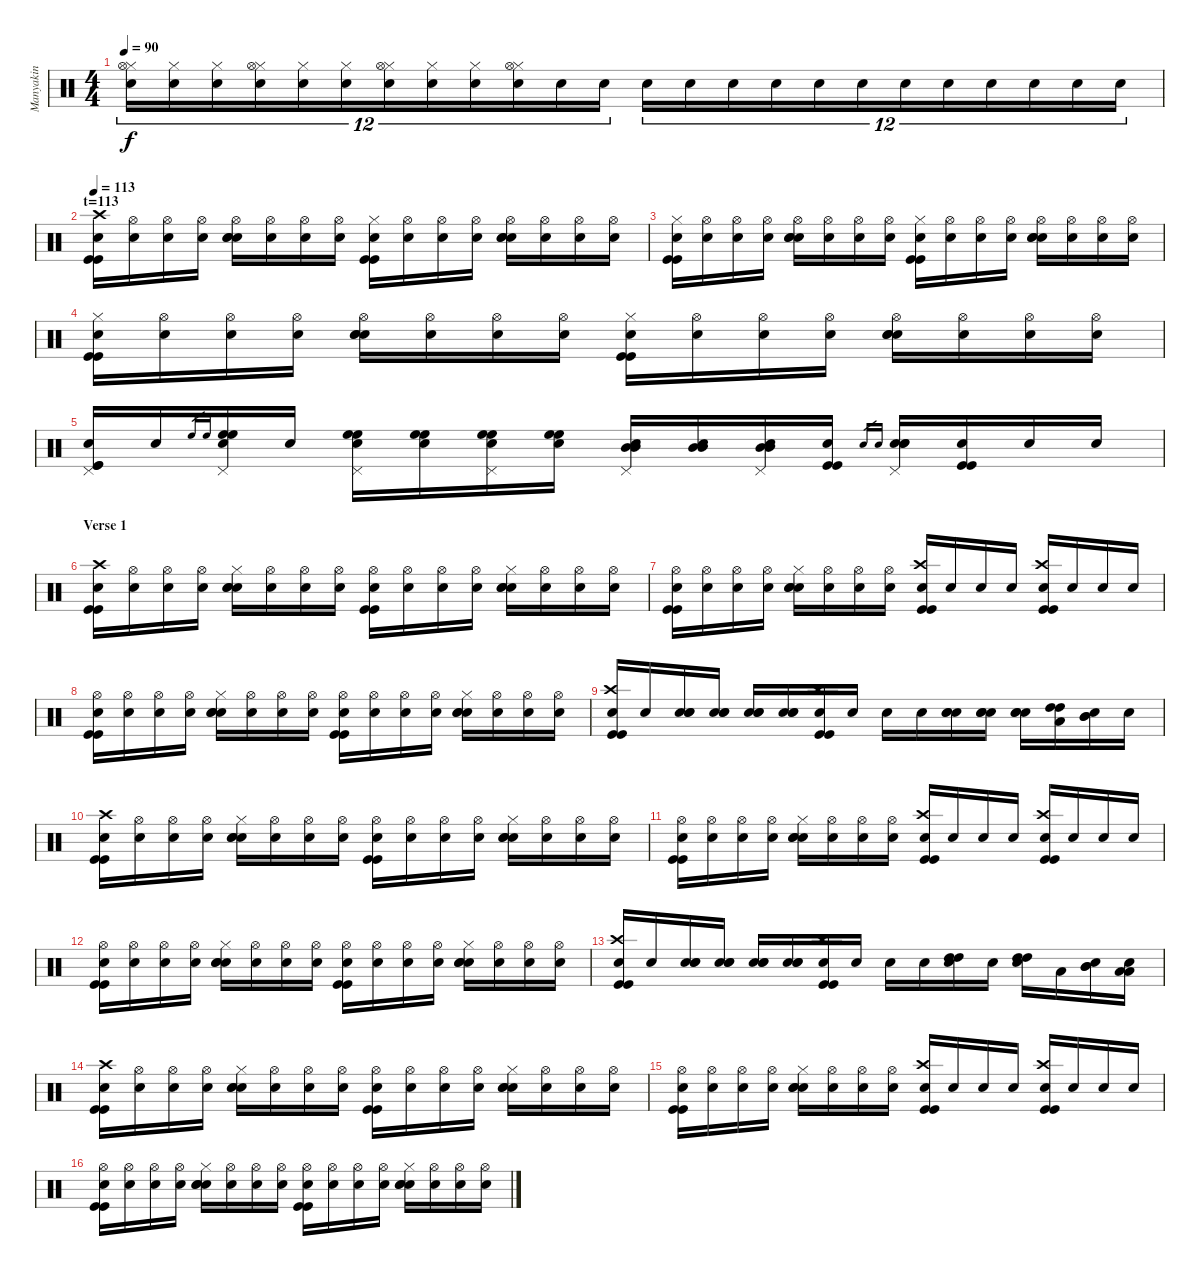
\track ("Manyakin" "Manyakin") {instrument percussion}
\staff {score}
\articulation defaults
\ts (4 4)
\tempo 90
\clef neutral
\ks c
("Hi-Hat (closed)" "Hi-Hat (open)" "Snare (hit)"{x}).16{tu (12 8) dy f} ("Hi-Hat (closed)" "Snare (hit)"{x}).16{tu (12 8)} ("Hi-Hat (closed)" "Snare (hit)"{x}).16{tu (12 8)} ("Hi-Hat (closed)" "Hi-Hat (open)" "Snare (hit)"{x}).16{tu (12 8)} ("Hi-Hat (closed)" "Snare (hit)"{x}).16{tu (12 8)} ("Hi-Hat (closed)" "Snare (hit)"{x}).16{tu (12 8)} ("Hi-Hat (closed)" "Hi-Hat (open)" "Snare (hit)"{x}).16{tu (12 8)} ("Hi-Hat (closed)" "Snare (hit)"{x}).16{tu (12 8)} ("Hi-Hat (closed)" "Snare (hit)"{x}).16{tu (12 8)} ("Hi-Hat (closed)" "Hi-Hat (open)" "Snare (hit)"{x}).16{tu (12 8)} "Snare (hit)"{x}.16{tu (12 8)} "Snare (hit)"{x}.16{tu (12 8)} "Snare (hit)"{x}.16{tu (12 8)} "Snare (hit)"{x}.16{tu (12 8)} "Snare (hit)"{x}.16{tu (12 8)} "Snare (hit)"{x}.16{tu (12 8)} "Snare (hit)"{x}.16{tu (12 8)} "Snare (hit)"{x}.16{tu (12 8)} "Snare (hit)"{x}.16{tu (12 8)} "Snare (hit)"{x}.16{tu (12 8)} "Snare (hit)"{x}.16{tu (12 8)} "Snare (hit)"{x}.16{tu (12 8)} "Snare (hit)"{x}.16{tu (12 8)} "Snare (hit)"{x}.16{tu (12 8)} |
\section ("" "t=113")
\tempo 113
("Crash high (hit)" "Kick (hit)" "Kick (hit)" "Snare (hit)"{x}).16 ("Hi-Hat (open)" "Snare (hit)"{x}).16 ("Hi-Hat (open)" "Snare (hit)"{x}).16 ("Hi-Hat (open)" "Snare (hit)"{x}).16 ("Hi-Hat (open)" "Electric Snare (hit)" "Electric Snare (hit)" "Snare (hit)"{x}).16 ("Hi-Hat (open)" "Snare (hit)"{x}).16 ("Hi-Hat (open)" "Snare (hit)"{x}).16 ("Hi-Hat (open)" "Snare (hit)"{x}).16 ("Hi-Hat (closed)" "Kick (hit)" "Kick (hit)" "Snare (hit)"{x}).16 ("Hi-Hat (open)" "Snare (hit)"{x}).16 ("Hi-Hat (open)" "Snare (hit)"{x}).16 ("Hi-Hat (open)" "Snare (hit)"{x}).16 ("Hi-Hat (open)" "Electric Snare (hit)" "Electric Snare (hit)" "Snare (hit)"{x}).16 ("Hi-Hat (open)" "Snare (hit)"{x}).16 ("Hi-Hat (open)" "Snare (hit)"{x}).16 ("Hi-Hat (open)" "Snare (hit)"{x}).16 |
("Hi-Hat (closed)" "Kick (hit)" "Kick (hit)" "Snare (hit)"{x}).16 ("Hi-Hat (open)" "Snare (hit)"{x}).16 ("Hi-Hat (open)" "Snare (hit)"{x}).16 ("Hi-Hat (open)" "Snare (hit)"{x}).16 ("Hi-Hat (open)" "Electric Snare (hit)" "Electric Snare (hit)" "Snare (hit)"{x}).16 ("Hi-Hat (open)" "Snare (hit)"{x}).16 ("Hi-Hat (open)" "Snare (hit)"{x}).16 ("Hi-Hat (open)" "Snare (hit)"{x}).16 ("Hi-Hat (closed)" "Kick (hit)" "Kick (hit)" "Snare (hit)"{x}).16 ("Hi-Hat (open)" "Snare (hit)"{x}).16 ("Hi-Hat (open)" "Snare (hit)"{x}).16 ("Hi-Hat (open)" "Snare (hit)"{x}).16 ("Hi-Hat (open)" "Electric Snare (hit)" "Electric Snare (hit)" "Snare (hit)"{x}).16 ("Hi-Hat (open)" "Snare (hit)"{x}).16 ("Hi-Hat (open)" "Snare (hit)"{x}).16 ("Hi-Hat (open)" "Snare (hit)"{x}).16 |
("Hi-Hat (closed)" "Kick (hit)" "Kick (hit)" "Snare (hit)"{x}).16 ("Hi-Hat (open)" "Snare (hit)"{x}).16 ("Hi-Hat (open)" "Snare (hit)"{x}).16 ("Hi-Hat (open)" "Snare (hit)"{x}).16 ("Hi-Hat (open)" "Electric Snare (hit)" "Electric Snare (hit)" "Snare (hit)"{x}).16 ("Hi-Hat (open)" "Snare (hit)"{x}).16 ("Hi-Hat (open)" "Snare (hit)"{x}).16 ("Hi-Hat (open)" "Snare (hit)"{x}).16 ("Hi-Hat (closed)" "Kick (hit)" "Kick (hit)" "Snare (hit)"{x}).16 ("Hi-Hat (open)" "Snare (hit)"{x}).16 ("Hi-Hat (open)" "Snare (hit)"{x}).16 ("Hi-Hat (open)" "Snare (hit)"{x}).16 ("Hi-Hat (open)" "Electric Snare (hit)" "Electric Snare (hit)" "Snare (hit)"{x}).16 ("Hi-Hat (open)" "Snare (hit)"{x}).16 ("Hi-Hat (open)" "Snare (hit)"{x}).16 ("Hi-Hat (open)" "Snare (hit)"{x}).16 |
("Pedal Hi-Hat (hit)" "Kick (hit)" "Kick (hit)" "Snare (hit)"{x}).16 "Snare (hit)"{x}.16 "High Floor Tom (hit)".16{gr} "High Floor Tom (hit)".16{gr} ("Pedal Hi-Hat (hit)" "High Floor Tom (hit)" "High Floor Tom (hit)" "Snare (hit)"{x}).16 "Snare (hit)"{x}.16 ("Pedal Hi-Hat (hit)" "High Floor Tom (hit)" "High Floor Tom (hit)" "Snare (hit)"{x}).16 ("High Floor Tom (hit)" "High Floor Tom (hit)" "Snare (hit)"{x}).16 ("Pedal Hi-Hat (hit)" "High Floor Tom (hit)" "High Floor Tom (hit)" "Snare (hit)"{x}).16 ("High Floor Tom (hit)" "High Floor Tom (hit)" "Snare (hit)"{x}).16 ("Pedal Hi-Hat (hit)" "Mid Tom (hit)" "Mid Tom (hit)" "Snare (hit)"{x}).16 ("Mid Tom (hit)" "Mid Tom (hit)" "Snare (hit)"{x}).16 ("Pedal Hi-Hat (hit)" "Mid Tom (hit)" "Mid Tom (hit)" "Snare (hit)"{x}).16 ("Kick (hit)" "Kick (hit)" "Snare (hit)"{x}).16 "Electric Snare (hit)".16{gr} "Electric Snare (hit)".16{gr} ("Pedal Hi-Hat (hit)" "Electric Snare (hit)" "Electric Snare (hit)" "Snare (hit)"{x}).16 ("Kick (hit)" "Kick (hit)" "Snare (hit)"{x}).16 "Snare (hit)"{x}.16 "Snare (hit)"{x}.16 |
\section ("" "Verse 1")
("Crash high (hit)" "Kick (hit)" "Kick (hit)" "Snare (hit)"{x}).16 ("Hi-Hat (open)" "Snare (hit)"{x}).16 ("Hi-Hat (open)" "Snare (hit)"{x}).16 ("Hi-Hat (open)" "Snare (hit)"{x}).16 ("Hi-Hat (closed)" "Electric Snare (hit)" "Electric Snare (hit)" "Snare (hit)"{x}).16 ("Hi-Hat (open)" "Snare (hit)"{x}).16 ("Hi-Hat (open)" "Snare (hit)"{x}).16 ("Hi-Hat (open)" "Snare (hit)"{x}).16 ("Hi-Hat (open)" "Kick (hit)" "Kick (hit)" "Snare (hit)"{x}).16 ("Hi-Hat (open)" "Snare (hit)"{x}).16 ("Hi-Hat (open)" "Snare (hit)"{x}).16 ("Hi-Hat (open)" "Snare (hit)"{x}).16 ("Hi-Hat (closed)" "Electric Snare (hit)" "Electric Snare (hit)" "Snare (hit)"{x}).16 ("Hi-Hat (open)" "Snare (hit)"{x}).16 ("Hi-Hat (open)" "Snare (hit)"{x}).16 ("Hi-Hat (open)" "Snare (hit)"{x}).16 |
("Hi-Hat (open)" "Kick (hit)" "Kick (hit)" "Snare (hit)"{x}).16 ("Hi-Hat (open)" "Snare (hit)"{x}).16 ("Hi-Hat (open)" "Snare (hit)"{x}).16 ("Hi-Hat (open)" "Snare (hit)"{x}).16 ("Hi-Hat (closed)" "Electric Snare (hit)" "Electric Snare (hit)" "Snare (hit)"{x}).16 ("Hi-Hat (open)" "Snare (hit)"{x}).16 ("Hi-Hat (open)" "Snare (hit)"{x}).16 ("Hi-Hat (open)" "Snare (hit)"{x}).16 ("Crash high (hit)" "Kick (hit)" "Kick (hit)" "Snare (hit)"{x}).16 "Snare (hit)"{x}.16 "Snare (hit)"{x}.16 "Snare (hit)"{x}.16 ("Crash high (hit)" "Kick (hit)" "Kick (hit)" "Snare (hit)"{x}).16 "Snare (hit)"{x}.16 "Snare (hit)"{x}.16 "Snare (hit)"{x}.16 |
("Hi-Hat (open)" "Kick (hit)" "Kick (hit)" "Snare (hit)"{x}).16 ("Hi-Hat (open)" "Snare (hit)"{x}).16 ("Hi-Hat (open)" "Snare (hit)"{x}).16 ("Hi-Hat (open)" "Snare (hit)"{x}).16 ("Hi-Hat (closed)" "Electric Snare (hit)" "Electric Snare (hit)" "Snare (hit)"{x}).16 ("Hi-Hat (open)" "Snare (hit)"{x}).16 ("Hi-Hat (open)" "Snare (hit)"{x}).16 ("Hi-Hat (open)" "Snare (hit)"{x}).16 ("Hi-Hat (open)" "Kick (hit)" "Kick (hit)" "Snare (hit)"{x}).16 ("Hi-Hat (open)" "Snare (hit)"{x}).16 ("Hi-Hat (open)" "Snare (hit)"{x}).16 ("Hi-Hat (open)" "Snare (hit)"{x}).16 ("Hi-Hat (closed)" "Electric Snare (hit)" "Electric Snare (hit)" "Snare (hit)"{x}).16 ("Hi-Hat (open)" "Snare (hit)"{x}).16 ("Hi-Hat (open)" "Snare (hit)"{x}).16 ("Hi-Hat (open)" "Snare (hit)"{x}).16 |
("Crash high (hit)" "Kick (hit)" "Kick (hit)" "Snare (hit)"{x}).16 "Snare (hit)"{x}.16 ("Electric Snare (hit)" "Electric Snare (hit)" "Snare (hit)"{x}).16 ("Electric Snare (hit)" "Electric Snare (hit)" "Snare (hit)"{x}).16 ("Electric Snare (hit)" "Electric Snare (hit)" "Snare (hit)"{x}).16 ("Electric Snare (hit)" "Electric Snare (hit)" "Snare (hit)"{x}).16 ("Crash high (hit)" "Kick (hit)" "Kick (hit)" "Snare (hit)"{x}).16 "Snare (hit)"{x}.16 "Snare (hit)"{x}.16 "Snare (hit)"{x}.16 ("Electric Snare (hit)" "Electric Snare (hit)" "Snare (hit)"{x}).16 ("Electric Snare (hit)" "Electric Snare (hit)" "Snare (hit)"{x}).16 ("Electric Snare (hit)" "Electric Snare (hit)" "Snare (hit)"{x}).16 ("High Tom (hit)" "High Tom (hit)" "Low Tom (hit)"{x}).16 ("Mid Tom (hit)" "Mid Tom (hit)" "Snare (hit)"{x}).16 "Snare (hit)"{x}.16 |
("Crash high (hit)" "Kick (hit)" "Kick (hit)" "Snare (hit)"{x}).16 ("Hi-Hat (open)" "Snare (hit)"{x}).16 ("Hi-Hat (open)" "Snare (hit)"{x}).16 ("Hi-Hat (open)" "Snare (hit)"{x}).16 ("Hi-Hat (closed)" "Electric Snare (hit)" "Electric Snare (hit)" "Snare (hit)"{x}).16 ("Hi-Hat (open)" "Snare (hit)"{x}).16 ("Hi-Hat (open)" "Snare (hit)"{x}).16 ("Hi-Hat (open)" "Snare (hit)"{x}).16 ("Hi-Hat (open)" "Kick (hit)" "Kick (hit)" "Snare (hit)"{x}).16 ("Hi-Hat (open)" "Snare (hit)"{x}).16 ("Hi-Hat (open)" "Snare (hit)"{x}).16 ("Hi-Hat (open)" "Snare (hit)"{x}).16 ("Hi-Hat (closed)" "Electric Snare (hit)" "Electric Snare (hit)" "Snare (hit)"{x}).16 ("Hi-Hat (open)" "Snare (hit)"{x}).16 ("Hi-Hat (open)" "Snare (hit)"{x}).16 ("Hi-Hat (open)" "Snare (hit)"{x}).16 |
("Hi-Hat (open)" "Kick (hit)" "Kick (hit)" "Snare (hit)"{x}).16 ("Hi-Hat (open)" "Snare (hit)"{x}).16 ("Hi-Hat (open)" "Snare (hit)"{x}).16 ("Hi-Hat (open)" "Snare (hit)"{x}).16 ("Hi-Hat (closed)" "Electric Snare (hit)" "Electric Snare (hit)" "Snare (hit)"{x}).16 ("Hi-Hat (open)" "Snare (hit)"{x}).16 ("Hi-Hat (open)" "Snare (hit)"{x}).16 ("Hi-Hat (open)" "Snare (hit)"{x}).16 ("Crash high (hit)" "Kick (hit)" "Kick (hit)" "Snare (hit)"{x}).16 "Snare (hit)"{x}.16 "Snare (hit)"{x}.16 "Snare (hit)"{x}.16 ("Crash high (hit)" "Kick (hit)" "Kick (hit)" "Snare (hit)"{x}).16 "Snare (hit)"{x}.16 "Snare (hit)"{x}.16 "Snare (hit)"{x}.16 |
("Hi-Hat (open)" "Kick (hit)" "Kick (hit)" "Snare (hit)"{x}).16 ("Hi-Hat (open)" "Snare (hit)"{x}).16 ("Hi-Hat (open)" "Snare (hit)"{x}).16 ("Hi-Hat (open)" "Snare (hit)"{x}).16 ("Hi-Hat (closed)" "Electric Snare (hit)" "Electric Snare (hit)" "Snare (hit)"{x}).16 ("Hi-Hat (open)" "Snare (hit)"{x}).16 ("Hi-Hat (open)" "Snare (hit)"{x}).16 ("Hi-Hat (open)" "Snare (hit)"{x}).16 ("Hi-Hat (open)" "Kick (hit)" "Kick (hit)" "Snare (hit)"{x}).16 ("Hi-Hat (open)" "Snare (hit)"{x}).16 ("Hi-Hat (open)" "Snare (hit)"{x}).16 ("Hi-Hat (open)" "Snare (hit)"{x}).16 ("Hi-Hat (closed)" "Electric Snare (hit)" "Electric Snare (hit)" "Snare (hit)"{x}).16 ("Hi-Hat (open)" "Snare (hit)"{x}).16 ("Hi-Hat (open)" "Snare (hit)"{x}).16 ("Hi-Hat (open)" "Snare (hit)"{x}).16 |
("Crash high (hit)" "Kick (hit)" "Kick (hit)" "Snare (hit)"{x}).16 "Snare (hit)"{x}.16 ("Electric Snare (hit)" "Electric Snare (hit)" "Snare (hit)"{x}).16 ("Electric Snare (hit)" "Electric Snare (hit)" "Snare (hit)"{x}).16 ("Electric Snare (hit)" "Electric Snare (hit)" "Snare (hit)"{x}).16 ("Electric Snare (hit)" "Electric Snare (hit)" "Snare (hit)"{x}).16 ("Crash high (hit)" "Kick (hit)" "Kick (hit)" "Snare (hit)"{x}).16 "Snare (hit)"{x}.16 "Snare (hit)"{x}.16 "Snare (hit)"{x}.16 ("High Tom (hit)" "High Tom (hit)" "Snare (hit)"{x}).16 "Snare (hit)"{x}.16 ("High Tom (hit)" "High Tom (hit)" "Snare (hit)"{x}).16 "Low Tom (hit)"{x}.16 ("Mid Tom (hit)" "Mid Tom (hit)" "Snare (hit)"{x}).16 ("Low Tom (hit)" "Low Tom (hit)" "Snare (hit)"{x}).16 |
("Crash high (hit)" "Kick (hit)" "Kick (hit)" "Snare (hit)"{x}).16 ("Hi-Hat (open)" "Snare (hit)"{x}).16 ("Hi-Hat (open)" "Snare (hit)"{x}).16 ("Hi-Hat (open)" "Snare (hit)"{x}).16 ("Hi-Hat (closed)" "Electric Snare (hit)" "Electric Snare (hit)" "Snare (hit)"{x}).16 ("Hi-Hat (open)" "Snare (hit)"{x}).16 ("Hi-Hat (open)" "Snare (hit)"{x}).16 ("Hi-Hat (open)" "Snare (hit)"{x}).16 ("Hi-Hat (open)" "Kick (hit)" "Kick (hit)" "Snare (hit)"{x}).16 ("Hi-Hat (open)" "Snare (hit)"{x}).16 ("Hi-Hat (open)" "Snare (hit)"{x}).16 ("Hi-Hat (open)" "Snare (hit)"{x}).16 ("Hi-Hat (closed)" "Electric Snare (hit)" "Electric Snare (hit)" "Snare (hit)"{x}).16 ("Hi-Hat (open)" "Snare (hit)"{x}).16 ("Hi-Hat (open)" "Snare (hit)"{x}).16 ("Hi-Hat (open)" "Snare (hit)"{x}).16 |
("Hi-Hat (open)" "Kick (hit)" "Kick (hit)" "Snare (hit)"{x}).16 ("Hi-Hat (open)" "Snare (hit)"{x}).16 ("Hi-Hat (open)" "Snare (hit)"{x}).16 ("Hi-Hat (open)" "Snare (hit)"{x}).16 ("Hi-Hat (closed)" "Electric Snare (hit)" "Electric Snare (hit)" "Snare (hit)"{x}).16 ("Hi-Hat (open)" "Snare (hit)"{x}).16 ("Hi-Hat (open)" "Snare (hit)"{x}).16 ("Hi-Hat (open)" "Snare (hit)"{x}).16 ("Crash high (hit)" "Kick (hit)" "Kick (hit)" "Snare (hit)"{x}).16 "Snare (hit)"{x}.16 "Snare (hit)"{x}.16 "Snare (hit)"{x}.16 ("Crash high (hit)" "Kick (hit)" "Kick (hit)" "Snare (hit)"{x}).16 "Snare (hit)"{x}.16 "Snare (hit)"{x}.16 "Snare (hit)"{x}.16 |
("Hi-Hat (open)" "Kick (hit)" "Kick (hit)" "Snare (hit)"{x}).16 ("Hi-Hat (open)" "Snare (hit)"{x}).16 ("Hi-Hat (open)" "Snare (hit)"{x}).16 ("Hi-Hat (open)" "Snare (hit)"{x}).16 ("Hi-Hat (closed)" "Electric Snare (hit)" "Electric Snare (hit)" "Snare (hit)"{x}).16 ("Hi-Hat (open)" "Snare (hit)"{x}).16 ("Hi-Hat (open)" "Snare (hit)"{x}).16 ("Hi-Hat (open)" "Snare (hit)"{x}).16 ("Hi-Hat (open)" "Kick (hit)" "Kick (hit)" "Snare (hit)"{x}).16 ("Hi-Hat (open)" "Snare (hit)"{x}).16 ("Hi-Hat (open)" "Snare (hit)"{x}).16 ("Hi-Hat (open)" "Snare (hit)"{x}).16 ("Hi-Hat (closed)" "Electric Snare (hit)" "Electric Snare (hit)" "Snare (hit)"{x}).16 ("Hi-Hat (open)" "Snare (hit)"{x}).16 ("Hi-Hat (open)" "Snare (hit)"{x}).16 ("Hi-Hat (open)" "Snare (hit)"{x}).16
